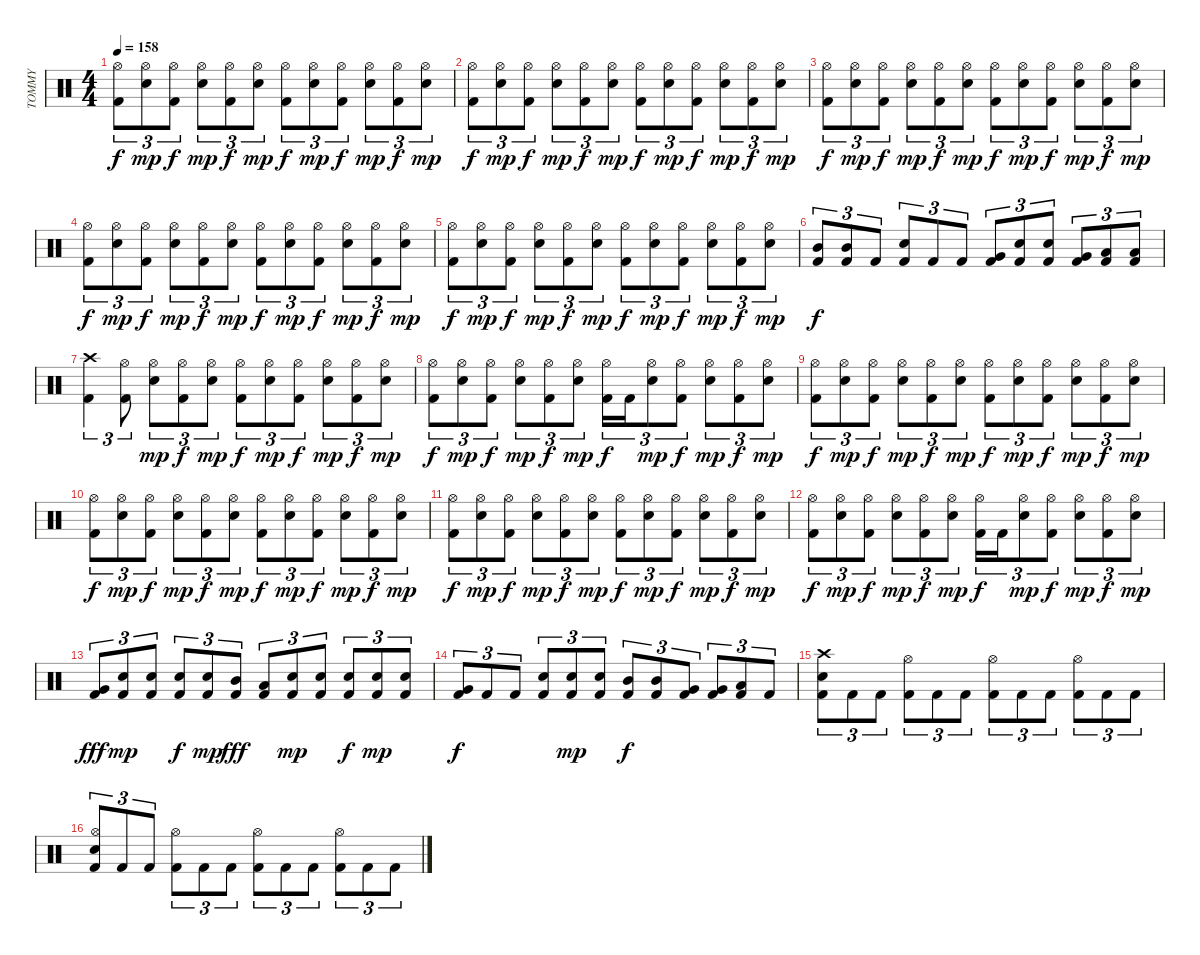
\track ("TOMMY" "TOMMY") {instrument percussion}
\staff {score}
\articulation defaults
\ts (4 4)
\tempo 158
\clef neutral
\ks c
("Kick (hit) 2" "Hi-Hat (open)").8{tu (3 2) dy f} ("Snare (hit) 2" "Hi-Hat (open)").8{tu (3 2) dy mp} ("Kick (hit) 2" "Hi-Hat (open)").8{tu (3 2) dy f} ("Snare (hit) 2" "Hi-Hat (open)").8{tu (3 2) dy mp} ("Kick (hit) 2" "Hi-Hat (open)").8{tu (3 2) dy f} ("Snare (hit) 2" "Hi-Hat (open)").8{tu (3 2) dy mp} ("Kick (hit) 2" "Hi-Hat (open)").8{tu (3 2) dy f} ("Snare (hit) 2" "Hi-Hat (open)").8{tu (3 2) dy mp} ("Kick (hit) 2" "Hi-Hat (open)").8{tu (3 2) dy f} ("Snare (hit) 2" "Hi-Hat (open)").8{tu (3 2) dy mp} ("Kick (hit) 2" "Hi-Hat (open)").8{tu (3 2) dy f} ("Snare (hit) 2" "Hi-Hat (open)").8{tu (3 2) dy mp} |
("Kick (hit) 2" "Hi-Hat (open)").8{tu (3 2) dy f} ("Snare (hit) 2" "Hi-Hat (open)").8{tu (3 2) dy mp} ("Kick (hit) 2" "Hi-Hat (open)").8{tu (3 2) dy f} ("Snare (hit) 2" "Hi-Hat (open)").8{tu (3 2) dy mp} ("Kick (hit) 2" "Hi-Hat (open)").8{tu (3 2) dy f} ("Snare (hit) 2" "Hi-Hat (open)").8{tu (3 2) dy mp} ("Kick (hit) 2" "Hi-Hat (open)").8{tu (3 2) dy f} ("Snare (hit) 2" "Hi-Hat (open)").8{tu (3 2) dy mp} ("Kick (hit) 2" "Hi-Hat (open)").8{tu (3 2) dy f} ("Snare (hit) 2" "Hi-Hat (open)").8{tu (3 2) dy mp} ("Kick (hit) 2" "Hi-Hat (open)").8{tu (3 2) dy f} ("Snare (hit) 2" "Hi-Hat (open)").8{tu (3 2) dy mp} |
("Kick (hit) 2" "Hi-Hat (open)").8{tu (3 2) dy f} ("Snare (hit) 2" "Hi-Hat (open)").8{tu (3 2) dy mp} ("Kick (hit) 2" "Hi-Hat (open)").8{tu (3 2) dy f} ("Snare (hit) 2" "Hi-Hat (open)").8{tu (3 2) dy mp} ("Kick (hit) 2" "Hi-Hat (open)").8{tu (3 2) dy f} ("Snare (hit) 2" "Hi-Hat (open)").8{tu (3 2) dy mp} ("Kick (hit) 2" "Hi-Hat (open)").8{tu (3 2) dy f} ("Snare (hit) 2" "Hi-Hat (open)").8{tu (3 2) dy mp} ("Kick (hit) 2" "Hi-Hat (open)").8{tu (3 2) dy f} ("Snare (hit) 2" "Hi-Hat (open)").8{tu (3 2) dy mp} ("Kick (hit) 2" "Hi-Hat (open)").8{tu (3 2) dy f} ("Snare (hit) 2" "Hi-Hat (open)").8{tu (3 2) dy mp} |
("Kick (hit) 2" "Hi-Hat (open)").8{tu (3 2) dy f} ("Snare (hit) 2" "Hi-Hat (open)").8{tu (3 2) dy mp} ("Kick (hit) 2" "Hi-Hat (open)").8{tu (3 2) dy f} ("Snare (hit) 2" "Hi-Hat (open)").8{tu (3 2) dy mp} ("Kick (hit) 2" "Hi-Hat (open)").8{tu (3 2) dy f} ("Snare (hit) 2" "Hi-Hat (open)").8{tu (3 2) dy mp} ("Kick (hit) 2" "Hi-Hat (open)").8{tu (3 2) dy f} ("Snare (hit) 2" "Hi-Hat (open)").8{tu (3 2) dy mp} ("Kick (hit) 2" "Hi-Hat (open)").8{tu (3 2) dy f} ("Snare (hit) 2" "Hi-Hat (open)").8{tu (3 2) dy mp} ("Kick (hit) 2" "Hi-Hat (open)").8{tu (3 2) dy f} ("Snare (hit) 2" "Hi-Hat (open)").8{tu (3 2) dy mp} |
("Kick (hit) 2" "Hi-Hat (open)").8{tu (3 2) dy f} ("Snare (hit) 2" "Hi-Hat (open)").8{tu (3 2) dy mp} ("Kick (hit) 2" "Hi-Hat (open)").8{tu (3 2) dy f} ("Snare (hit) 2" "Hi-Hat (open)").8{tu (3 2) dy mp} ("Kick (hit) 2" "Hi-Hat (open)").8{tu (3 2) dy f} ("Snare (hit) 2" "Hi-Hat (open)").8{tu (3 2) dy mp} ("Kick (hit) 2" "Hi-Hat (open)").8{tu (3 2) dy f} ("Snare (hit) 2" "Hi-Hat (open)").8{tu (3 2) dy mp} ("Kick (hit) 2" "Hi-Hat (open)").8{tu (3 2) dy f} ("Snare (hit) 2" "Hi-Hat (open)").8{tu (3 2) dy mp} ("Kick (hit) 2" "Hi-Hat (open)").8{tu (3 2) dy f} ("Snare (hit) 2" "Hi-Hat (open)").8{tu (3 2) dy mp} |
("Kick (hit) 2" "Mid Tom (hit)").8{tu (3 2) dy f} ("Kick (hit) 2" "Mid Tom (hit)").8{tu (3 2)} "Kick (hit) 2".8{tu (3 2)} ("Snare (hit) 2" "Kick (hit) 2").8{tu (3 2)} "Kick (hit) 2".8{tu (3 2)} "Kick (hit) 2".8{tu (3 2)} ("Kick (hit) 2" "Very Low Tom (hit)").8{tu (3 2)} ("Snare (hit) 2" "Kick (hit) 2").8{tu (3 2)} ("Snare (hit) 2" "Kick (hit) 2").8{tu (3 2)} ("Kick (hit) 2" "Very Low Tom (hit)").8{tu (3 2)} ("Kick (hit) 2" "Low Floor Tom (hit)").8{tu (3 2)} ("Kick (hit) 2" "Low Floor Tom (hit)").8{tu (3 2)} |
("Kick (hit) 2" "Crash high (hit)").4{tu (3 2)} ("Kick (hit) 2" "Hi-Hat (open)").8{tu (3 2)} ("Snare (hit) 2" "Hi-Hat (open)").8{tu (3 2) dy mp} ("Kick (hit) 2" "Hi-Hat (open)").8{tu (3 2) dy f} ("Snare (hit) 2" "Hi-Hat (open)").8{tu (3 2) dy mp} ("Kick (hit) 2" "Hi-Hat (open)").8{tu (3 2) dy f} ("Snare (hit) 2" "Hi-Hat (open)").8{tu (3 2) dy mp} ("Kick (hit) 2" "Hi-Hat (open)").8{tu (3 2) dy f} ("Snare (hit) 2" "Hi-Hat (open)").8{tu (3 2) dy mp} ("Kick (hit) 2" "Hi-Hat (open)").8{tu (3 2) dy f} ("Snare (hit) 2" "Hi-Hat (open)").8{tu (3 2) dy mp} |
("Kick (hit) 2" "Hi-Hat (open)").8{tu (3 2) dy f} ("Snare (hit) 2" "Hi-Hat (open)").8{tu (3 2) dy mp} ("Kick (hit) 2" "Hi-Hat (open)").8{tu (3 2) dy f} ("Snare (hit) 2" "Hi-Hat (open)").8{tu (3 2) dy mp} ("Kick (hit) 2" "Hi-Hat (open)").8{tu (3 2) dy f} ("Snare (hit) 2" "Hi-Hat (open)").8{tu (3 2) dy mp} ("Kick (hit) 2" "Hi-Hat (open)").16{tu (3 2) dy f} "Kick (hit) 2".16{tu (3 2)} ("Snare (hit) 2" "Hi-Hat (open)").8{tu (3 2) dy mp} ("Kick (hit) 2" "Hi-Hat (open)").8{tu (3 2) dy f} ("Snare (hit) 2" "Hi-Hat (open)").8{tu (3 2) dy mp} ("Kick (hit) 2" "Hi-Hat (open)").8{tu (3 2) dy f} ("Snare (hit) 2" "Hi-Hat (open)").8{tu (3 2) dy mp} |
("Kick (hit) 2" "Hi-Hat (open)").8{tu (3 2) dy f} ("Snare (hit) 2" "Hi-Hat (open)").8{tu (3 2) dy mp} ("Kick (hit) 2" "Hi-Hat (open)").8{tu (3 2) dy f} ("Snare (hit) 2" "Hi-Hat (open)").8{tu (3 2) dy mp} ("Kick (hit) 2" "Hi-Hat (open)").8{tu (3 2) dy f} ("Snare (hit) 2" "Hi-Hat (open)").8{tu (3 2) dy mp} ("Kick (hit) 2" "Hi-Hat (open)").8{tu (3 2) dy f} ("Snare (hit) 2" "Hi-Hat (open)").8{tu (3 2) dy mp} ("Kick (hit) 2" "Hi-Hat (open)").8{tu (3 2) dy f} ("Snare (hit) 2" "Hi-Hat (open)").8{tu (3 2) dy mp} ("Kick (hit) 2" "Hi-Hat (open)").8{tu (3 2) dy f} ("Snare (hit) 2" "Hi-Hat (open)").8{tu (3 2) dy mp} |
("Kick (hit) 2" "Hi-Hat (open)").8{tu (3 2) dy f} ("Snare (hit) 2" "Hi-Hat (open)").8{tu (3 2) dy mp} ("Kick (hit) 2" "Hi-Hat (open)").8{tu (3 2) dy f} ("Snare (hit) 2" "Hi-Hat (open)").8{tu (3 2) dy mp} ("Kick (hit) 2" "Hi-Hat (open)").8{tu (3 2) dy f} ("Snare (hit) 2" "Hi-Hat (open)").8{tu (3 2) dy mp} ("Kick (hit) 2" "Hi-Hat (open)").8{tu (3 2) dy f} ("Snare (hit) 2" "Hi-Hat (open)").8{tu (3 2) dy mp} ("Kick (hit) 2" "Hi-Hat (open)").8{tu (3 2) dy f} ("Snare (hit) 2" "Hi-Hat (open)").8{tu (3 2) dy mp} ("Kick (hit) 2" "Hi-Hat (open)").8{tu (3 2) dy f} ("Snare (hit) 2" "Hi-Hat (open)").8{tu (3 2) dy mp} |
("Kick (hit) 2" "Hi-Hat (open)").8{tu (3 2) dy f} ("Snare (hit) 2" "Hi-Hat (open)").8{tu (3 2) dy mp} ("Kick (hit) 2" "Hi-Hat (open)").8{tu (3 2) dy f} ("Snare (hit) 2" "Hi-Hat (open)").8{tu (3 2) dy mp} ("Kick (hit) 2" "Hi-Hat (open)").8{tu (3 2) dy f} ("Snare (hit) 2" "Hi-Hat (open)").8{tu (3 2) dy mp} ("Kick (hit) 2" "Hi-Hat (open)").8{tu (3 2) dy f} ("Snare (hit) 2" "Hi-Hat (open)").8{tu (3 2) dy mp} ("Kick (hit) 2" "Hi-Hat (open)").8{tu (3 2) dy f} ("Snare (hit) 2" "Hi-Hat (open)").8{tu (3 2) dy mp} ("Kick (hit) 2" "Hi-Hat (open)").8{tu (3 2) dy f} ("Snare (hit) 2" "Hi-Hat (open)").8{tu (3 2) dy mp} |
("Kick (hit) 2" "Hi-Hat (open)").8{tu (3 2) dy f} ("Snare (hit) 2" "Hi-Hat (open)").8{tu (3 2) dy mp} ("Kick (hit) 2" "Hi-Hat (open)").8{tu (3 2) dy f} ("Snare (hit) 2" "Hi-Hat (open)").8{tu (3 2) dy mp} ("Kick (hit) 2" "Hi-Hat (open)").8{tu (3 2) dy f} ("Snare (hit) 2" "Hi-Hat (open)").8{tu (3 2) dy mp} ("Kick (hit) 2" "Hi-Hat (open)").16{tu (3 2) dy f} "Kick (hit) 2".16{tu (3 2)} ("Snare (hit) 2" "Hi-Hat (open)").8{tu (3 2) dy mp} ("Kick (hit) 2" "Hi-Hat (open)").8{tu (3 2) dy f} ("Snare (hit) 2" "Hi-Hat (open)").8{tu (3 2) dy mp} ("Kick (hit) 2" "Hi-Hat (open)").8{tu (3 2) dy f} ("Snare (hit) 2" "Hi-Hat (open)").8{tu (3 2) dy mp} |
("Kick (hit) 2" "Very Low Tom (hit)").8{tu (3 2) dy fff} ("Snare (hit) 2" "Kick (hit) 2").8{tu (3 2) dy mp} ("Snare (hit) 2" "Kick (hit) 2").8{tu (3 2)} ("Snare (hit) 2" "Kick (hit) 2").8{tu (3 2) dy f} ("Snare (hit) 2" "Kick (hit) 2").8{tu (3 2) dy mp} ("Kick (hit) 2" "Mid Tom (hit)").8{tu (3 2) dy fff} ("Kick (hit) 2" "Low Floor Tom (hit)").8{tu (3 2)} ("Snare (hit) 2" "Kick (hit) 2").8{tu (3 2) dy mp} ("Snare (hit) 2" "Kick (hit) 2").8{tu (3 2)} ("Snare (hit) 2" "Kick (hit) 2").8{tu (3 2) dy f} ("Snare (hit) 2" "Kick (hit) 2").8{tu (3 2) dy mp} ("Snare (hit) 2" "Kick (hit) 2").8{tu (3 2)} |
("Kick (hit) 2" "Very Low Tom (hit)").8{tu (3 2) dy f} "Kick (hit) 2".8{tu (3 2)} "Kick (hit) 2".8{tu (3 2)} ("Snare (hit) 2" "Kick (hit) 2").8{tu (3 2)} ("Snare (hit) 2" "Kick (hit) 2").8{tu (3 2) dy mp} ("Snare (hit) 2" "Kick (hit) 2").8{tu (3 2)} ("Kick (hit) 2" "Mid Tom (hit)").8{tu (3 2) dy f} ("Kick (hit) 2" "Mid Tom (hit)").8{tu (3 2)} ("Kick (hit) 2" "Very Low Tom (hit)").8{tu (3 2)} ("Kick (hit) 2" "Very Low Tom (hit)").8{tu (3 2)} ("Kick (hit) 2" "Low Floor Tom (hit)").8{tu (3 2)} "Kick (hit) 2".8{tu (3 2)} |
("Snare (hit) 2" "Kick (hit) 2" "Crash high (hit)").8{tu (3 2)} "Kick (hit) 2".8{tu (3 2)} "Kick (hit) 2".8{tu (3 2)} ("Kick (hit) 2" "Hi-Hat (open)").8{tu (3 2)} "Kick (hit) 2".8{tu (3 2)} "Kick (hit) 2".8{tu (3 2)} ("Kick (hit) 2" "Hi-Hat (open)").8{tu (3 2)} "Kick (hit) 2".8{tu (3 2)} "Kick (hit) 2".8{tu (3 2)} ("Kick (hit) 2" "Hi-Hat (open)").8{tu (3 2)} "Kick (hit) 2".8{tu (3 2)} "Kick (hit) 2".8{tu (3 2)} |
("Snare (hit) 2" "Kick (hit) 2" "Hi-Hat (open)").8{tu (3 2)} "Kick (hit) 2".8{tu (3 2)} "Kick (hit) 2".8{tu (3 2)} ("Kick (hit) 2" "Hi-Hat (open)").8{tu (3 2)} "Kick (hit) 2".8{tu (3 2)} "Kick (hit) 2".8{tu (3 2)} ("Kick (hit) 2" "Hi-Hat (open)").8{tu (3 2)} "Kick (hit) 2".8{tu (3 2)} "Kick (hit) 2".8{tu (3 2)} ("Kick (hit) 2" "Hi-Hat (open)").8{tu (3 2)} "Kick (hit) 2".8{tu (3 2)} "Kick (hit) 2".8{tu (3 2)}
